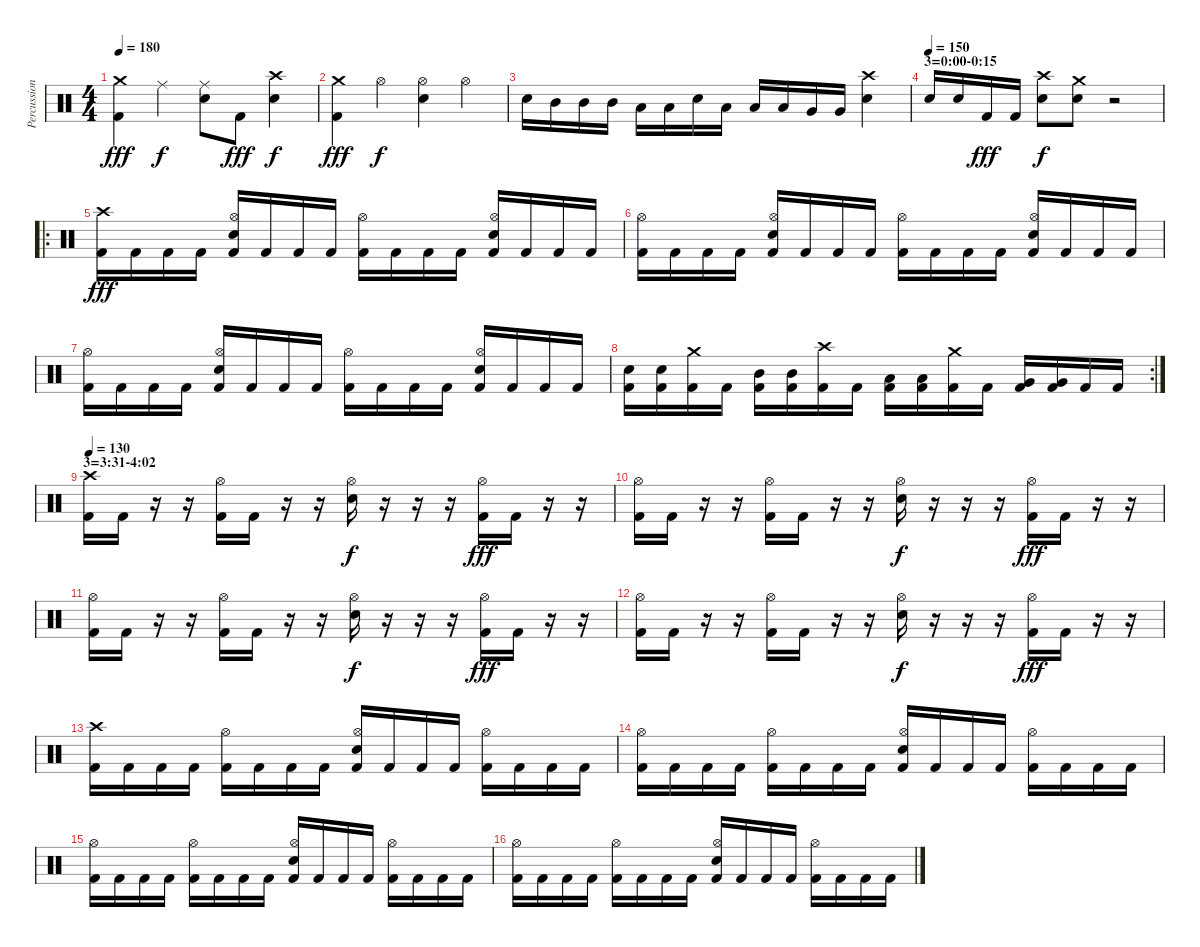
\track ("Percussion" "Percussion") {instrument percussion}
\staff {score}
\articulation defaults
\ts (4 4)
\tempo 180
\clef neutral
\ks c
("Crash medium (hit)" "Kick (hit) 2").4{dy fff} "Ride (middle)".4{dy f} ("Ride (middle)" "Electric Snare (hit)").8 "Kick (hit) 2".8{dy fff} ("Crash high (hit)" "Electric Snare (hit)").4{dy f} |
("Crash medium (hit)" "Kick (hit) 2").4{dy fff} "Hi-Hat (open)".4{dy f} ("Hi-Hat (open)" "Electric Snare (hit)").4 "Hi-Hat (open)".4 |
"Electric Snare (hit)".16 "Mid Tom (hit)".16 "Mid Tom (hit)".16 "Mid Tom (hit)".16 "Low Tom (hit)".16 "Low Tom (hit)".16 "Electric Snare (hit)".16 "Low Tom (hit)".16 "Low Tom (hit)".16 "Low Tom (hit)".16 "Very Low Tom (hit)".16 "Very Low Tom (hit)".16 ("Crash high (hit)" "Electric Snare (hit)").4 |
\section ("" "3=0:00-0:15")
\tempo (150)
"Snare (hit) 2".16 "Snare (hit) 2".16 "Kick (hit) 2".16{dy fff} "Kick (hit) 2".16 ("Crash high (hit)" "Snare (hit) 2").8{dy f} ("Crash medium (hit)" "Snare (hit) 2").8 r.2 |
\ro
("Crash high (hit)" "Kick (hit) 2").16{dy fff} "Kick (hit) 2".16 "Kick (hit) 2".16 "Kick (hit) 2".16 ("Hi-Hat (open)" "Snare (hit) 2" "Kick (hit) 2").16 "Kick (hit) 2".16 "Kick (hit) 2".16 "Kick (hit) 2".16 ("Hi-Hat (open)" "Kick (hit) 2").16 "Kick (hit) 2".16 "Kick (hit) 2".16 "Kick (hit) 2".16 ("Hi-Hat (open)" "Snare (hit) 2" "Kick (hit) 2").16 "Kick (hit) 2".16 "Kick (hit) 2".16 "Kick (hit) 2".16 |
("Hi-Hat (open)" "Kick (hit) 2").16 "Kick (hit) 2".16 "Kick (hit) 2".16 "Kick (hit) 2".16 ("Hi-Hat (open)" "Snare (hit) 2" "Kick (hit) 2").16 "Kick (hit) 2".16 "Kick (hit) 2".16 "Kick (hit) 2".16 ("Hi-Hat (open)" "Kick (hit) 2").16 "Kick (hit) 2".16 "Kick (hit) 2".16 "Kick (hit) 2".16 ("Hi-Hat (open)" "Snare (hit) 2" "Kick (hit) 2").16 "Kick (hit) 2".16 "Kick (hit) 2".16 "Kick (hit) 2".16 |
("Hi-Hat (open)" "Kick (hit) 2").16 "Kick (hit) 2".16 "Kick (hit) 2".16 "Kick (hit) 2".16 ("Hi-Hat (open)" "Snare (hit) 2" "Kick (hit) 2").16 "Kick (hit) 2".16 "Kick (hit) 2".16 "Kick (hit) 2".16 ("Hi-Hat (open)" "Kick (hit) 2").16 "Kick (hit) 2".16 "Kick (hit) 2".16 "Kick (hit) 2".16 ("Hi-Hat (open)" "Snare (hit) 2" "Kick (hit) 2").16 "Kick (hit) 2".16 "Kick (hit) 2".16 "Kick (hit) 2".16 |
\rc 2
("Snare (hit) 2" "Kick (hit) 2").16 ("Snare (hit) 2" "Kick (hit) 2").16 ("Crash medium (hit)" "Kick (hit) 2").16 "Kick (hit) 2".16 ("Mid Tom (hit)" "Kick (hit) 2").16 ("Mid Tom (hit)" "Kick (hit) 2").16 ("Crash high (hit)" "Kick (hit) 2").16 "Kick (hit) 2".16 ("Low Tom (hit)" "Kick (hit) 2").16 ("Low Tom (hit)" "Kick (hit) 2").16 ("Crash medium (hit)" "Kick (hit) 2").16 "Kick (hit) 2".16 ("Very Low Tom (hit)" "Kick (hit) 2").16 ("Very Low Tom (hit)" "Kick (hit) 2").16 "Kick (hit) 2".16 "Kick (hit) 2".16 |
\section ("" "3=3:31-4:02")
\tempo 130
("Crash high (hit)" "Kick (hit) 2").16 "Kick (hit) 2".16 r.16 r.16 ("Hi-Hat (open)" "Kick (hit) 2").16 "Kick (hit) 2".16 r.16 r.16 ("Hi-Hat (open)" "Snare (hit) 2").16{dy f} r.16 r.16 r.16 ("Hi-Hat (open)" "Kick (hit) 2").16{dy fff} "Kick (hit) 2".16 r.16 r.16 |
("Hi-Hat (open)" "Kick (hit) 2").16 "Kick (hit) 2".16 r.16 r.16 ("Hi-Hat (open)" "Kick (hit) 2").16 "Kick (hit) 2".16 r.16 r.16 ("Hi-Hat (open)" "Snare (hit) 2").16{dy f} r.16 r.16 r.16 ("Hi-Hat (open)" "Kick (hit) 2").16{dy fff} "Kick (hit) 2".16 r.16 r.16 |
("Hi-Hat (open)" "Kick (hit) 2").16 "Kick (hit) 2".16 r.16 r.16 ("Hi-Hat (open)" "Kick (hit) 2").16 "Kick (hit) 2".16 r.16 r.16 ("Hi-Hat (open)" "Snare (hit) 2").16{dy f} r.16 r.16 r.16 ("Hi-Hat (open)" "Kick (hit) 2").16{dy fff} "Kick (hit) 2".16 r.16 r.16 |
("Hi-Hat (open)" "Kick (hit) 2").16 "Kick (hit) 2".16 r.16 r.16 ("Hi-Hat (open)" "Kick (hit) 2").16 "Kick (hit) 2".16 r.16 r.16 ("Hi-Hat (open)" "Snare (hit) 2").16{dy f} r.16 r.16 r.16 ("Hi-Hat (open)" "Kick (hit) 2").16{dy fff} "Kick (hit) 2".16 r.16 r.16 |
("Crash high (hit)" "Kick (hit) 2").16 "Kick (hit) 2".16 "Kick (hit) 2".16 "Kick (hit) 2".16 ("Hi-Hat (open)" "Kick (hit) 2").16 "Kick (hit) 2".16 "Kick (hit) 2".16 "Kick (hit) 2".16 ("Hi-Hat (open)" "Snare (hit) 2" "Kick (hit) 2").16 "Kick (hit) 2".16 "Kick (hit) 2".16 "Kick (hit) 2".16 ("Hi-Hat (open)" "Kick (hit) 2").16 "Kick (hit) 2".16 "Kick (hit) 2".16 "Kick (hit) 2".16 |
("Hi-Hat (open)" "Kick (hit) 2").16 "Kick (hit) 2".16 "Kick (hit) 2".16 "Kick (hit) 2".16 ("Hi-Hat (open)" "Kick (hit) 2").16 "Kick (hit) 2".16 "Kick (hit) 2".16 "Kick (hit) 2".16 ("Hi-Hat (open)" "Snare (hit) 2" "Kick (hit) 2").16 "Kick (hit) 2".16 "Kick (hit) 2".16 "Kick (hit) 2".16 ("Hi-Hat (open)" "Kick (hit) 2").16 "Kick (hit) 2".16 "Kick (hit) 2".16 "Kick (hit) 2".16 |
("Hi-Hat (open)" "Kick (hit) 2").16 "Kick (hit) 2".16 "Kick (hit) 2".16 "Kick (hit) 2".16 ("Hi-Hat (open)" "Kick (hit) 2").16 "Kick (hit) 2".16 "Kick (hit) 2".16 "Kick (hit) 2".16 ("Hi-Hat (open)" "Snare (hit) 2" "Kick (hit) 2").16 "Kick (hit) 2".16 "Kick (hit) 2".16 "Kick (hit) 2".16 ("Hi-Hat (open)" "Kick (hit) 2").16 "Kick (hit) 2".16 "Kick (hit) 2".16 "Kick (hit) 2".16 |
("Hi-Hat (open)" "Kick (hit) 2").16 "Kick (hit) 2".16 "Kick (hit) 2".16 "Kick (hit) 2".16 ("Hi-Hat (open)" "Kick (hit) 2").16 "Kick (hit) 2".16 "Kick (hit) 2".16 "Kick (hit) 2".16 ("Hi-Hat (open)" "Snare (hit) 2" "Kick (hit) 2").16 "Kick (hit) 2".16 "Kick (hit) 2".16 "Kick (hit) 2".16 ("Hi-Hat (open)" "Kick (hit) 2").16 "Kick (hit) 2".16 "Kick (hit) 2".16 "Kick (hit) 2".16
